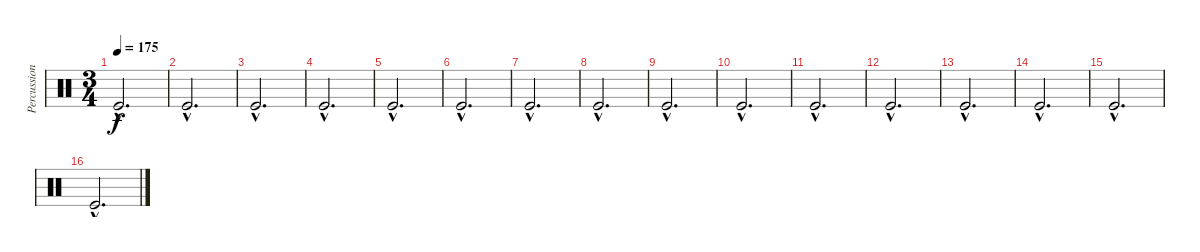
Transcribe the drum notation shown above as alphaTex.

\track ("Percussion" "Percussion") {instrument percussion}
\staff {score}
\articulation defaults
\ts (3 4)
\tempo 175
\clef neutral
\ks c "Kick (hit)"{hac}.2{d dy f}
|
"Kick (hit)"{hac}.2{d} |
"Kick (hit)"{hac}.2{d} |
"Kick (hit)"{hac}.2{d} |
"Kick (hit)"{hac}.2{d} |
"Kick (hit)"{hac}.2{d} |
"Kick (hit)"{hac}.2{d} |
"Kick (hit)"{hac}.2{d} |
"Kick (hit)"{hac}.2{d} |
"Kick (hit)"{hac}.2{d} |
"Kick (hit)"{hac}.2{d} |
"Kick (hit)"{hac}.2{d} |
"Kick (hit)"{hac}.2{d} |
"Kick (hit)"{hac}.2{d} |
"Kick (hit)"{hac}.2{d} |
"Kick (hit)"{hac}.2{d}
